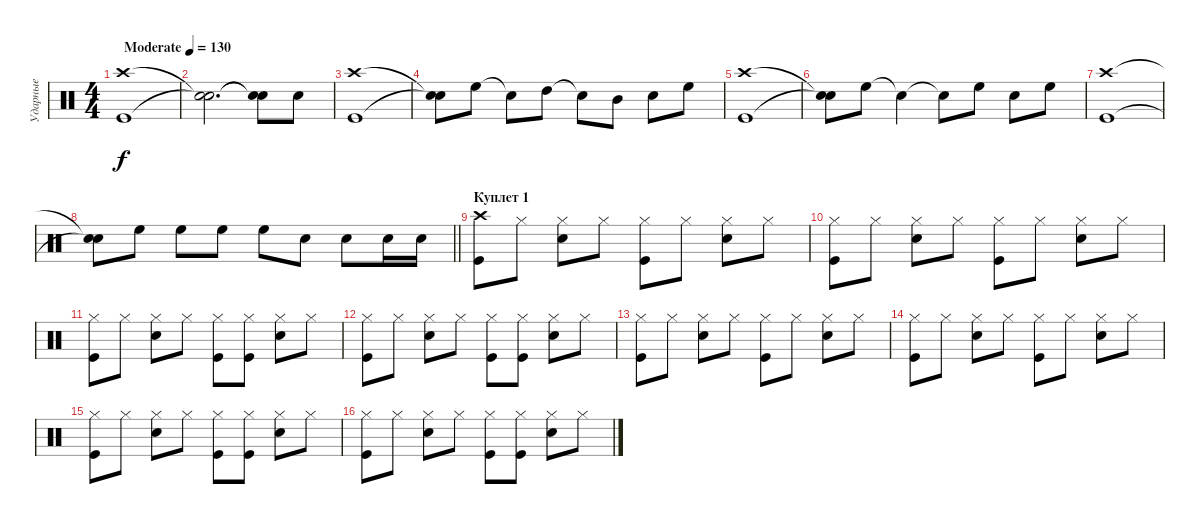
\track ("Ударные" "Ударные") {instrument percussion}
\staff {score}
\articulation defaults
\ts (4 4)
\tempo (130 "Moderate")
\clef neutral
\ks c
("Crash high (hit)" "Kick (hit)").1{dy f} |
("Snare (hit)"{t} "Snare (hit)"{t}).2{d} ("Snare (hit)"{t} "Snare (hit)"{t}).8 "Snare (hit) 2".8 |
("Crash high (hit)" "Kick (hit)").1 |
("Snare (hit)"{t} "Snare (hit)"{t}).8 "High Floor Tom (hit)".8 "Snare (hit)"{t}.8 "High Tom (hit)".8 "Snare (hit)"{t}.8 "Mid Tom (hit)".8 "Snare (hit) 2".8 "High Floor Tom (hit)".8 |
("Crash high (hit)" "Kick (hit)").1 |
("Snare (hit)"{t} "Snare (hit)"{t}).8 "High Floor Tom (hit)".8 "Snare (hit)"{t}.4 "Snare (hit)"{t}.8 "High Floor Tom (hit)".8 "Snare (hit) 2".8 "High Floor Tom (hit)".8 |
("Crash high (hit)" "Kick (hit)").1 |
\barLineRight lightlight
("Snare (hit)"{t} "Snare (hit)"{t}).8 "High Floor Tom (hit)".8 "High Floor Tom (hit)".8 "High Floor Tom (hit)".8 "High Floor Tom (hit)".8 "Snare (hit) 2".8 "Snare (hit) 2".8 "Snare (hit) 2".16 "Snare (hit) 2".16 |
\section ("" "Куплет 1")
("Crash high (hit)" "Kick (hit)").8 "Hi-Hat (closed)".8 ("Hi-Hat (closed)" "Snare (hit) 2").8 "Hi-Hat (closed)".8 ("Hi-Hat (closed)" "Kick (hit)").8 "Hi-Hat (closed)".8 ("Hi-Hat (closed)" "Snare (hit) 2").8 "Hi-Hat (closed)".8 |
("Hi-Hat (closed)" "Kick (hit)").8 "Hi-Hat (closed)".8 ("Hi-Hat (closed)" "Snare (hit) 2").8 "Hi-Hat (closed)".8 ("Hi-Hat (closed)" "Kick (hit)").8 "Hi-Hat (closed)".8 ("Hi-Hat (closed)" "Snare (hit) 2").8 "Hi-Hat (closed)".8 |
("Hi-Hat (closed)" "Kick (hit)").8 "Hi-Hat (closed)".8 ("Hi-Hat (closed)" "Snare (hit) 2").8 "Hi-Hat (closed)".8 ("Hi-Hat (closed)" "Kick (hit)").8 ("Hi-Hat (closed)" "Kick (hit)").8 ("Hi-Hat (closed)" "Snare (hit) 2").8 "Hi-Hat (closed)".8 |
("Hi-Hat (closed)" "Kick (hit)").8 "Hi-Hat (closed)".8 ("Hi-Hat (closed)" "Snare (hit) 2").8 "Hi-Hat (closed)".8 ("Hi-Hat (closed)" "Kick (hit)").8 ("Hi-Hat (closed)" "Kick (hit)").8 ("Hi-Hat (closed)" "Snare (hit) 2").8 "Hi-Hat (closed)".8 |
("Hi-Hat (closed)" "Kick (hit)").8 "Hi-Hat (closed)".8 ("Hi-Hat (closed)" "Snare (hit) 2").8 "Hi-Hat (closed)".8 ("Hi-Hat (closed)" "Kick (hit)").8 "Hi-Hat (closed)".8 ("Hi-Hat (closed)" "Snare (hit) 2").8 "Hi-Hat (closed)".8 |
("Hi-Hat (closed)" "Kick (hit)").8 "Hi-Hat (closed)".8 ("Hi-Hat (closed)" "Snare (hit) 2").8 "Hi-Hat (closed)".8 ("Hi-Hat (closed)" "Kick (hit)").8 "Hi-Hat (closed)".8 ("Hi-Hat (closed)" "Snare (hit) 2").8 "Hi-Hat (closed)".8 |
("Hi-Hat (closed)" "Kick (hit)").8 "Hi-Hat (closed)".8 ("Hi-Hat (closed)" "Snare (hit) 2").8 "Hi-Hat (closed)".8 ("Hi-Hat (closed)" "Kick (hit)").8 ("Hi-Hat (closed)" "Kick (hit)").8 ("Hi-Hat (closed)" "Snare (hit) 2").8 "Hi-Hat (closed)".8 |
("Hi-Hat (closed)" "Kick (hit)").8 "Hi-Hat (closed)".8 ("Hi-Hat (closed)" "Snare (hit) 2").8 "Hi-Hat (closed)".8 ("Hi-Hat (closed)" "Kick (hit)").8 ("Hi-Hat (closed)" "Kick (hit)").8 ("Hi-Hat (closed)" "Snare (hit) 2").8 "Hi-Hat (closed)".8
